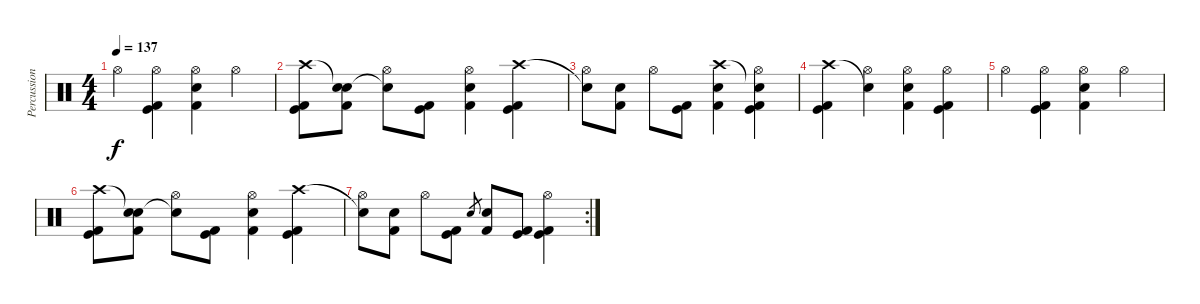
\track ("Percussion" "Percussion") {instrument percussion}
\staff {score}
\articulation defaults
\ts (4 4)
\tempo 137
\clef neutral
\ks c "Hi-Hat (open)".4{dy f}
("Hi-Hat (open)" "Kick (hit) 2" "Kick (hit)").4 ("Hi-Hat (open)" "Snare (hit) 2" "Kick (hit) 2").4 "Hi-Hat (open)".4 |
("Crash high (hit)" "Kick (hit) 2" "Kick (hit)").8 ("Snare (hit)"{t} "Snare (hit) 2" "Kick (hit) 2").8 ("Snare (hit)"{t} "Hi-Hat (open)").8 ("Kick (hit) 2" "Kick (hit)").8 ("Hi-Hat (open)" "Snare (hit) 2" "Kick (hit) 2").4 ("Crash high (hit)" "Kick (hit) 2" "Kick (hit)").4 |
("Snare (hit)"{t} "Hi-Hat (open)").8 ("Snare (hit) 2" "Kick (hit) 2").8 "Hi-Hat (open)".8 ("Kick (hit) 2" "Kick (hit)").8 ("Crash high (hit)" "Snare (hit) 2" "Kick (hit) 2").4 ("Snare (hit)"{t} "Hi-Hat (open)" "Kick (hit) 2" "Kick (hit)").4 |
("Crash high (hit)" "Kick (hit) 2" "Kick (hit)").4 ("Snare (hit)"{t} "Hi-Hat (open)").4 ("Hi-Hat (open)" "Snare (hit) 2" "Kick (hit) 2").4 ("Hi-Hat (open)" "Kick (hit) 2" "Kick (hit)").4 |
"Hi-Hat (open)".4 ("Hi-Hat (open)" "Kick (hit) 2" "Kick (hit)").4 ("Hi-Hat (open)" "Snare (hit) 2" "Kick (hit) 2").4 "Hi-Hat (open)".4 |
("Crash high (hit)" "Kick (hit) 2" "Kick (hit)").8 ("Snare (hit)"{t} "Snare (hit) 2" "Kick (hit) 2").8 ("Snare (hit)"{t} "Hi-Hat (open)").8 ("Kick (hit) 2" "Kick (hit)").8 ("Hi-Hat (open)" "Snare (hit) 2" "Kick (hit) 2").4 ("Crash high (hit)" "Kick (hit) 2" "Kick (hit)").4 |
\rc 2
("Snare (hit)"{t} "Hi-Hat (open)").8 ("Snare (hit) 2" "Kick (hit) 2").8 "Hi-Hat (open)".8 ("Kick (hit) 2" "Kick (hit)").8 "Snare (hit) 2".8{gr} ("Snare (hit) 2" "Kick (hit) 2").8 ("Kick (hit) 2" "Kick (hit)").8 ("Hi-Hat (open)" "Kick (hit) 2" "Kick (hit)").4
